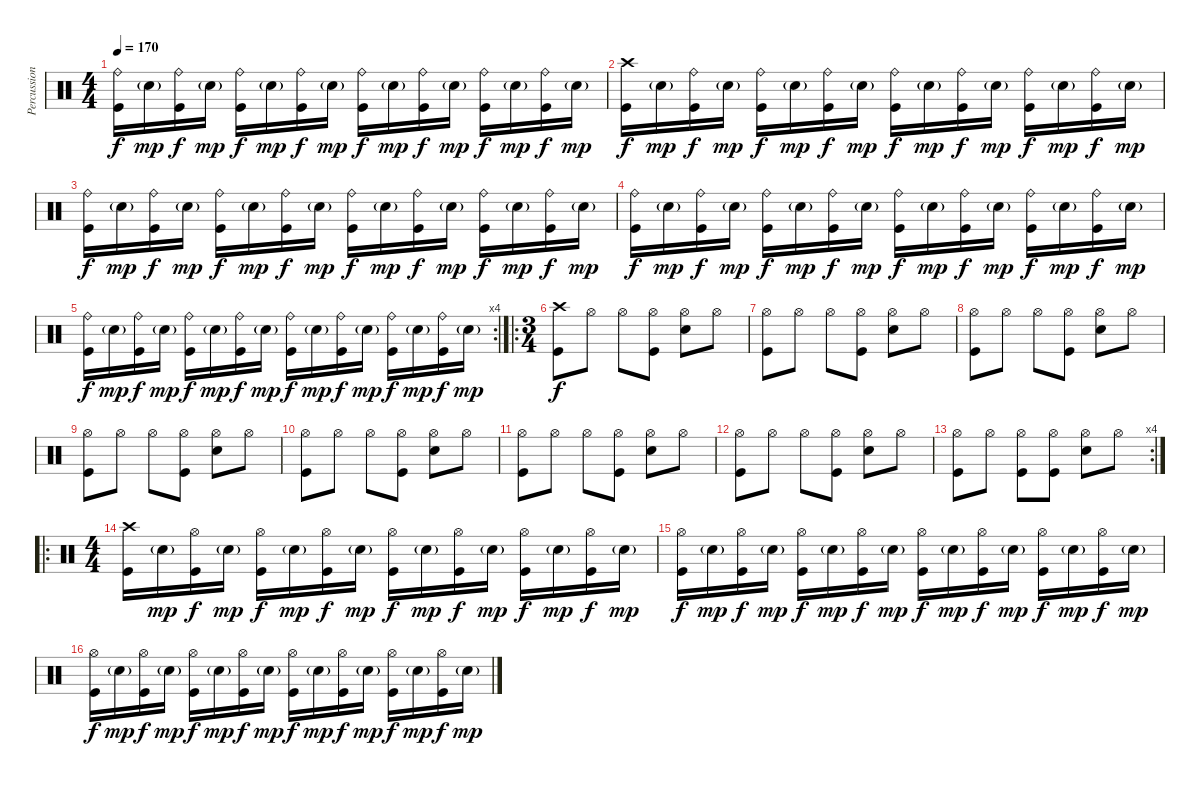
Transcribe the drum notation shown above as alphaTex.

\track ("Percussion" "Percussion") {instrument percussion}
\staff {score}
\articulation defaults
\ts (4 4)
\tempo 170
\clef neutral
\ks c
("Ride (bell)" "Kick (hit)").16{dy f} "Snare (hit) 2"{g}.16{dy mp} ("Ride (bell)" "Kick (hit)").16{dy f} "Snare (hit) 2"{g}.16{dy mp} ("Ride (bell)" "Kick (hit)").16{dy f} "Snare (hit) 2"{g}.16{dy mp} ("Ride (bell)" "Kick (hit)").16{dy f} "Snare (hit) 2"{g}.16{dy mp} ("Ride (bell)" "Kick (hit)").16{dy f} "Snare (hit) 2"{g}.16{dy mp} ("Ride (bell)" "Kick (hit)").16{dy f} "Snare (hit) 2"{g}.16{dy mp} ("Ride (bell)" "Kick (hit)").16{dy f} "Snare (hit) 2"{g}.16{dy mp} ("Ride (bell)" "Kick (hit)").16{dy f} "Snare (hit) 2"{g}.16{dy mp} |
("Crash high (hit)" "Kick (hit)").16{dy f} "Snare (hit) 2"{g}.16{dy mp} ("Ride (bell)" "Kick (hit)").16{dy f} "Snare (hit) 2"{g}.16{dy mp} ("Ride (bell)" "Kick (hit)").16{dy f} "Snare (hit) 2"{g}.16{dy mp} ("Ride (bell)" "Kick (hit)").16{dy f} "Snare (hit) 2"{g}.16{dy mp} ("Ride (bell)" "Kick (hit)").16{dy f} "Snare (hit) 2"{g}.16{dy mp} ("Ride (bell)" "Kick (hit)").16{dy f} "Snare (hit) 2"{g}.16{dy mp} ("Ride (bell)" "Kick (hit)").16{dy f} "Snare (hit) 2"{g}.16{dy mp} ("Ride (bell)" "Kick (hit)").16{dy f} "Snare (hit) 2"{g}.16{dy mp} |
("Ride (bell)" "Kick (hit)").16{dy f} "Snare (hit) 2"{g}.16{dy mp} ("Ride (bell)" "Kick (hit)").16{dy f} "Snare (hit) 2"{g}.16{dy mp} ("Ride (bell)" "Kick (hit)").16{dy f} "Snare (hit) 2"{g}.16{dy mp} ("Ride (bell)" "Kick (hit)").16{dy f} "Snare (hit) 2"{g}.16{dy mp} ("Ride (bell)" "Kick (hit)").16{dy f} "Snare (hit) 2"{g}.16{dy mp} ("Ride (bell)" "Kick (hit)").16{dy f} "Snare (hit) 2"{g}.16{dy mp} ("Ride (bell)" "Kick (hit)").16{dy f} "Snare (hit) 2"{g}.16{dy mp} ("Ride (bell)" "Kick (hit)").16{dy f} "Snare (hit) 2"{g}.16{dy mp} |
("Ride (bell)" "Kick (hit)").16{dy f} "Snare (hit) 2"{g}.16{dy mp} ("Ride (bell)" "Kick (hit)").16{dy f} "Snare (hit) 2"{g}.16{dy mp} ("Ride (bell)" "Kick (hit)").16{dy f} "Snare (hit) 2"{g}.16{dy mp} ("Ride (bell)" "Kick (hit)").16{dy f} "Snare (hit) 2"{g}.16{dy mp} ("Ride (bell)" "Kick (hit)").16{dy f} "Snare (hit) 2"{g}.16{dy mp} ("Ride (bell)" "Kick (hit)").16{dy f} "Snare (hit) 2"{g}.16{dy mp} ("Ride (bell)" "Kick (hit)").16{dy f} "Snare (hit) 2"{g}.16{dy mp} ("Ride (bell)" "Kick (hit)").16{dy f} "Snare (hit) 2"{g}.16{dy mp} |
\rc 4
("Ride (bell)" "Kick (hit)").16{dy f} "Snare (hit) 2"{g}.16{dy mp} ("Ride (bell)" "Kick (hit)").16{dy f} "Snare (hit) 2"{g}.16{dy mp} ("Ride (bell)" "Kick (hit)").16{dy f} "Snare (hit) 2"{g}.16{dy mp} ("Ride (bell)" "Kick (hit)").16{dy f} "Snare (hit) 2"{g}.16{dy mp} ("Ride (bell)" "Kick (hit)").16{dy f} "Snare (hit) 2"{g}.16{dy mp} ("Ride (bell)" "Kick (hit)").16{dy f} "Snare (hit) 2"{g}.16{dy mp} ("Ride (bell)" "Kick (hit)").16{dy f} "Snare (hit) 2"{g}.16{dy mp} ("Ride (bell)" "Kick (hit)").16{dy f} "Snare (hit) 2"{g}.16{dy mp} |
\ro
\ts (3 4)
("Crash high (hit)" "Kick (hit)").8{dy f} "Hi-Hat (open)".8 "Hi-Hat (open)".8 ("Hi-Hat (open)" "Kick (hit)").8 ("Hi-Hat (open)" "Snare (hit) 2").8 "Hi-Hat (open)".8 |
("Hi-Hat (open)" "Kick (hit)").8 "Hi-Hat (open)".8 "Hi-Hat (open)".8 ("Hi-Hat (open)" "Kick (hit)").8 ("Hi-Hat (open)" "Snare (hit) 2").8 "Hi-Hat (open)".8 |
("Hi-Hat (open)" "Kick (hit)").8 "Hi-Hat (open)".8 "Hi-Hat (open)".8 ("Hi-Hat (open)" "Kick (hit)").8 ("Hi-Hat (open)" "Snare (hit) 2").8 "Hi-Hat (open)".8 |
("Hi-Hat (open)" "Kick (hit)").8 "Hi-Hat (open)".8 "Hi-Hat (open)".8 ("Hi-Hat (open)" "Kick (hit)").8 ("Hi-Hat (open)" "Snare (hit) 2").8 "Hi-Hat (open)".8 |
("Hi-Hat (open)" "Kick (hit)").8 "Hi-Hat (open)".8 "Hi-Hat (open)".8 ("Hi-Hat (open)" "Kick (hit)").8 ("Hi-Hat (open)" "Snare (hit) 2").8 "Hi-Hat (open)".8 |
("Hi-Hat (open)" "Kick (hit)").8 "Hi-Hat (open)".8 "Hi-Hat (open)".8 ("Hi-Hat (open)" "Kick (hit)").8 ("Hi-Hat (open)" "Snare (hit) 2").8 "Hi-Hat (open)".8 |
("Hi-Hat (open)" "Kick (hit)").8 "Hi-Hat (open)".8 "Hi-Hat (open)".8 ("Hi-Hat (open)" "Kick (hit)").8 ("Hi-Hat (open)" "Snare (hit) 2").8 "Hi-Hat (open)".8 |
\rc 4
("Hi-Hat (open)" "Kick (hit)").8 "Hi-Hat (open)".8 ("Hi-Hat (open)" "Kick (hit)").8 ("Hi-Hat (open)" "Kick (hit)").8 ("Hi-Hat (open)" "Snare (hit) 2").8 "Hi-Hat (open)".8 |
\ro
\ts (4 4)
("Crash high (hit)" "Kick (hit)").16 "Snare (hit) 2"{g}.16{dy mp} ("Hi-Hat (open)" "Kick (hit)").16{dy f} "Snare (hit) 2"{g}.16{dy mp} ("Hi-Hat (open)" "Kick (hit)").16{dy f} "Snare (hit) 2"{g}.16{dy mp} ("Hi-Hat (open)" "Kick (hit)").16{dy f} "Snare (hit) 2"{g}.16{dy mp} ("Hi-Hat (open)" "Kick (hit)").16{dy f} "Snare (hit) 2"{g}.16{dy mp} ("Hi-Hat (open)" "Kick (hit)").16{dy f} "Snare (hit) 2"{g}.16{dy mp} ("Hi-Hat (open)" "Kick (hit)").16{dy f} "Snare (hit) 2"{g}.16{dy mp} ("Hi-Hat (open)" "Kick (hit)").16{dy f} "Snare (hit) 2"{g}.16{dy mp} |
("Hi-Hat (open)" "Kick (hit)").16{dy f} "Snare (hit) 2"{g}.16{dy mp} ("Hi-Hat (open)" "Kick (hit)").16{dy f} "Snare (hit) 2"{g}.16{dy mp} ("Hi-Hat (open)" "Kick (hit)").16{dy f} "Snare (hit) 2"{g}.16{dy mp} ("Hi-Hat (open)" "Kick (hit)").16{dy f} "Snare (hit) 2"{g}.16{dy mp} ("Hi-Hat (open)" "Kick (hit)").16{dy f} "Snare (hit) 2"{g}.16{dy mp} ("Hi-Hat (open)" "Kick (hit)").16{dy f} "Snare (hit) 2"{g}.16{dy mp} ("Hi-Hat (open)" "Kick (hit)").16{dy f} "Snare (hit) 2"{g}.16{dy mp} ("Hi-Hat (open)" "Kick (hit)").16{dy f} "Snare (hit) 2"{g}.16{dy mp} |
("Hi-Hat (open)" "Kick (hit)").16{dy f} "Snare (hit) 2"{g}.16{dy mp} ("Hi-Hat (open)" "Kick (hit)").16{dy f} "Snare (hit) 2"{g}.16{dy mp} ("Hi-Hat (open)" "Kick (hit)").16{dy f} "Snare (hit) 2"{g}.16{dy mp} ("Hi-Hat (open)" "Kick (hit)").16{dy f} "Snare (hit) 2"{g}.16{dy mp} ("Hi-Hat (open)" "Kick (hit)").16{dy f} "Snare (hit) 2"{g}.16{dy mp} ("Hi-Hat (open)" "Kick (hit)").16{dy f} "Snare (hit) 2"{g}.16{dy mp} ("Hi-Hat (open)" "Kick (hit)").16{dy f} "Snare (hit) 2"{g}.16{dy mp} ("Hi-Hat (open)" "Kick (hit)").16{dy f} "Snare (hit) 2"{g}.16{dy mp}
